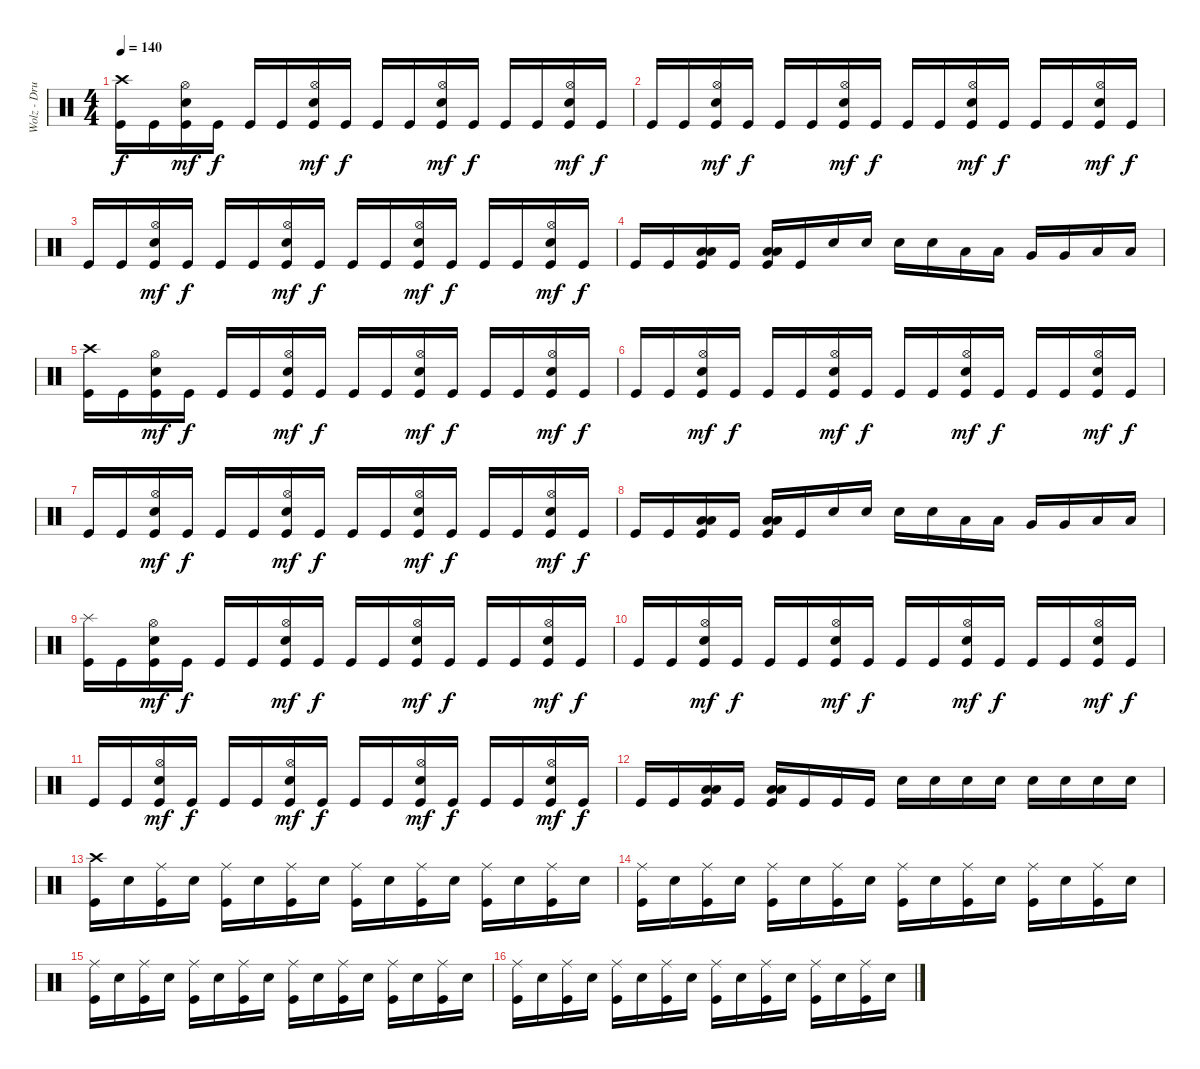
\track ("Wolz - Drums" "Wolz - Dru") {instrument percussion}
\staff {score}
\articulation defaults
\ts (4 4)
\tempo 140
\clef neutral
\ks c
("Crash high (hit)" "Kick (hit)").16{dy f} "Kick (hit)".16 ("Hi-Hat (open)" "Electric Snare (hit)" "Kick (hit)").16{dy mf} "Kick (hit)".16{dy f} "Kick (hit)".16 "Kick (hit)".16 ("Hi-Hat (open)" "Electric Snare (hit)" "Kick (hit)").16{dy mf} "Kick (hit)".16{dy f} "Kick (hit)".16 "Kick (hit)".16 ("Hi-Hat (open)" "Electric Snare (hit)" "Kick (hit)").16{dy mf} "Kick (hit)".16{dy f} "Kick (hit)".16 "Kick (hit)".16 ("Hi-Hat (open)" "Electric Snare (hit)" "Kick (hit)").16{dy mf} "Kick (hit)".16{dy f} |
"Kick (hit)".16 "Kick (hit)".16 ("Hi-Hat (open)" "Electric Snare (hit)" "Kick (hit)").16{dy mf} "Kick (hit)".16{dy f} "Kick (hit)".16 "Kick (hit)".16 ("Hi-Hat (open)" "Electric Snare (hit)" "Kick (hit)").16{dy mf} "Kick (hit)".16{dy f} "Kick (hit)".16 "Kick (hit)".16 ("Hi-Hat (open)" "Electric Snare (hit)" "Kick (hit)").16{dy mf} "Kick (hit)".16{dy f} "Kick (hit)".16 "Kick (hit)".16 ("Hi-Hat (open)" "Electric Snare (hit)" "Kick (hit)").16{dy mf} "Kick (hit)".16{dy f} |
"Kick (hit)".16 "Kick (hit)".16 ("Hi-Hat (open)" "Electric Snare (hit)" "Kick (hit)").16{dy mf} "Kick (hit)".16{dy f} "Kick (hit)".16 "Kick (hit)".16 ("Hi-Hat (open)" "Electric Snare (hit)" "Kick (hit)").16{dy mf} "Kick (hit)".16{dy f} "Kick (hit)".16 "Kick (hit)".16 ("Hi-Hat (open)" "Electric Snare (hit)" "Kick (hit)").16{dy mf} "Kick (hit)".16{dy f} "Kick (hit)".16 "Kick (hit)".16 ("Hi-Hat (open)" "Electric Snare (hit)" "Kick (hit)").16{dy mf} "Kick (hit)".16{dy f} |
"Kick (hit)".16 "Kick (hit)".16 ("Low Tom (hit)" "Low Tom (hit)" "Kick (hit)").16{bu 60} "Kick (hit)".16 ("Low Tom (hit)" "Low Tom (hit)" "Kick (hit)").16{bu 60} "Kick (hit)".16 "Electric Snare (hit)".16 "Electric Snare (hit)".16 "Electric Snare (hit)".16 "Electric Snare (hit)".16 "Low Tom (hit)".16 "Low Tom (hit)".16 "Very Low Tom (hit)".16 "Very Low Tom (hit)".16 "Low Floor Tom (hit)".16 "Low Floor Tom (hit)".16 |
("Crash high (hit)" "Kick (hit)").16 "Kick (hit)".16 ("Hi-Hat (open)" "Electric Snare (hit)" "Kick (hit)").16{dy mf} "Kick (hit)".16{dy f} "Kick (hit)".16 "Kick (hit)".16 ("Hi-Hat (open)" "Electric Snare (hit)" "Kick (hit)").16{dy mf} "Kick (hit)".16{dy f} "Kick (hit)".16 "Kick (hit)".16 ("Hi-Hat (open)" "Electric Snare (hit)" "Kick (hit)").16{dy mf} "Kick (hit)".16{dy f} "Kick (hit)".16 "Kick (hit)".16 ("Hi-Hat (open)" "Electric Snare (hit)" "Kick (hit)").16{dy mf} "Kick (hit)".16{dy f} |
"Kick (hit)".16 "Kick (hit)".16 ("Hi-Hat (open)" "Electric Snare (hit)" "Kick (hit)").16{dy mf} "Kick (hit)".16{dy f} "Kick (hit)".16 "Kick (hit)".16 ("Hi-Hat (open)" "Electric Snare (hit)" "Kick (hit)").16{dy mf} "Kick (hit)".16{dy f} "Kick (hit)".16 "Kick (hit)".16 ("Hi-Hat (open)" "Electric Snare (hit)" "Kick (hit)").16{dy mf} "Kick (hit)".16{dy f} "Kick (hit)".16 "Kick (hit)".16 ("Hi-Hat (open)" "Electric Snare (hit)" "Kick (hit)").16{dy mf} "Kick (hit)".16{dy f} |
"Kick (hit)".16 "Kick (hit)".16 ("Hi-Hat (open)" "Electric Snare (hit)" "Kick (hit)").16{dy mf} "Kick (hit)".16{dy f} "Kick (hit)".16 "Kick (hit)".16 ("Hi-Hat (open)" "Electric Snare (hit)" "Kick (hit)").16{dy mf} "Kick (hit)".16{dy f} "Kick (hit)".16 "Kick (hit)".16 ("Hi-Hat (open)" "Electric Snare (hit)" "Kick (hit)").16{dy mf} "Kick (hit)".16{dy f} "Kick (hit)".16 "Kick (hit)".16 ("Hi-Hat (open)" "Electric Snare (hit)" "Kick (hit)").16{dy mf} "Kick (hit)".16{dy f} |
"Kick (hit)".16 "Kick (hit)".16 ("Low Tom (hit)" "Low Tom (hit)" "Kick (hit)").16{bu 60} "Kick (hit)".16 ("Low Tom (hit)" "Low Tom (hit)" "Kick (hit)").16{bu 60} "Kick (hit)".16 "Electric Snare (hit)".16 "Electric Snare (hit)".16 "Electric Snare (hit)".16 "Electric Snare (hit)".16 "Low Tom (hit)".16 "Low Tom (hit)".16 "Very Low Tom (hit)".16 "Very Low Tom (hit)".16 "Low Floor Tom (hit)".16 "Low Floor Tom (hit)".16 |
("Splash (hit)" "Kick (hit)").16 "Kick (hit)".16 ("Hi-Hat (open)" "Electric Snare (hit)" "Kick (hit)").16{dy mf} "Kick (hit)".16{dy f} "Kick (hit)".16 "Kick (hit)".16 ("Hi-Hat (open)" "Electric Snare (hit)" "Kick (hit)").16{dy mf} "Kick (hit)".16{dy f} "Kick (hit)".16 "Kick (hit)".16 ("Hi-Hat (open)" "Electric Snare (hit)" "Kick (hit)").16{dy mf} "Kick (hit)".16{dy f} "Kick (hit)".16 "Kick (hit)".16 ("Hi-Hat (open)" "Electric Snare (hit)" "Kick (hit)").16{dy mf} "Kick (hit)".16{dy f} |
"Kick (hit)".16 "Kick (hit)".16 ("Hi-Hat (open)" "Electric Snare (hit)" "Kick (hit)").16{dy mf} "Kick (hit)".16{dy f} "Kick (hit)".16 "Kick (hit)".16 ("Hi-Hat (open)" "Electric Snare (hit)" "Kick (hit)").16{dy mf} "Kick (hit)".16{dy f} "Kick (hit)".16 "Kick (hit)".16 ("Hi-Hat (open)" "Electric Snare (hit)" "Kick (hit)").16{dy mf} "Kick (hit)".16{dy f} "Kick (hit)".16 "Kick (hit)".16 ("Hi-Hat (open)" "Electric Snare (hit)" "Kick (hit)").16{dy mf} "Kick (hit)".16{dy f} |
"Kick (hit)".16 "Kick (hit)".16 ("Hi-Hat (open)" "Electric Snare (hit)" "Kick (hit)").16{dy mf} "Kick (hit)".16{dy f} "Kick (hit)".16 "Kick (hit)".16 ("Hi-Hat (open)" "Electric Snare (hit)" "Kick (hit)").16{dy mf} "Kick (hit)".16{dy f} "Kick (hit)".16 "Kick (hit)".16 ("Hi-Hat (open)" "Electric Snare (hit)" "Kick (hit)").16{dy mf} "Kick (hit)".16{dy f} "Kick (hit)".16 "Kick (hit)".16 ("Hi-Hat (open)" "Electric Snare (hit)" "Kick (hit)").16{dy mf} "Kick (hit)".16{dy f} |
"Kick (hit)".16 "Kick (hit)".16 ("Low Tom (hit)" "Low Tom (hit)" "Kick (hit)").16{bu 60} "Kick (hit)".16 ("Low Tom (hit)" "Low Tom (hit)" "Kick (hit)").16{bu 60} "Kick (hit)".16 "Kick (hit)".16 "Kick (hit)".16 "Electric Snare (hit)".16 "Electric Snare (hit)".16 "Electric Snare (hit)".16 "Electric Snare (hit)".16 "Electric Snare (hit)".16 "Electric Snare (hit)".16 "Electric Snare (hit)".16 "Electric Snare (hit)".16 |
("Crash high (hit)" "Kick (hit)").16 "Electric Snare (hit)".16 ("Ride (middle)" "Kick (hit)").16 "Electric Snare (hit)".16 ("Ride (middle)" "Kick (hit)").16 "Electric Snare (hit)".16 ("Ride (middle)" "Kick (hit)").16 "Electric Snare (hit)".16 ("Ride (middle)" "Kick (hit)").16 "Electric Snare (hit)".16 ("Ride (middle)" "Kick (hit)").16 "Electric Snare (hit)".16 ("Ride (middle)" "Kick (hit)").16 "Electric Snare (hit)".16 ("Ride (middle)" "Kick (hit)").16 "Electric Snare (hit)".16 |
("Ride (middle)" "Kick (hit)").16 "Electric Snare (hit)".16 ("Ride (middle)" "Kick (hit)").16 "Electric Snare (hit)".16 ("Ride (middle)" "Kick (hit)").16 "Electric Snare (hit)".16 ("Ride (middle)" "Kick (hit)").16 "Electric Snare (hit)".16 ("Ride (middle)" "Kick (hit)").16 "Electric Snare (hit)".16 ("Ride (middle)" "Kick (hit)").16 "Electric Snare (hit)".16 ("Ride (middle)" "Kick (hit)").16 "Electric Snare (hit)".16 ("Ride (middle)" "Kick (hit)").16 "Electric Snare (hit)".16 |
("Ride (middle)" "Kick (hit)").16 "Electric Snare (hit)".16 ("Ride (middle)" "Kick (hit)").16 "Electric Snare (hit)".16 ("Ride (middle)" "Kick (hit)").16 "Electric Snare (hit)".16 ("Ride (middle)" "Kick (hit)").16 "Electric Snare (hit)".16 ("Ride (middle)" "Kick (hit)").16 "Electric Snare (hit)".16 ("Ride (middle)" "Kick (hit)").16 "Electric Snare (hit)".16 ("Ride (middle)" "Kick (hit)").16 "Electric Snare (hit)".16 ("Ride (middle)" "Kick (hit)").16 "Electric Snare (hit)".16 |
("Ride (middle)" "Kick (hit)").16 "Electric Snare (hit)".16 ("Ride (middle)" "Kick (hit)").16 "Electric Snare (hit)".16 ("Ride (middle)" "Kick (hit)").16 "Electric Snare (hit)".16 ("Ride (middle)" "Kick (hit)").16 "Electric Snare (hit)".16 ("Ride (middle)" "Kick (hit)").16 "Electric Snare (hit)".16 ("Ride (middle)" "Kick (hit)").16 "Electric Snare (hit)".16 ("Ride (middle)" "Kick (hit)").16 "Electric Snare (hit)".16 ("Ride (middle)" "Kick (hit)").16 "Electric Snare (hit)".16
